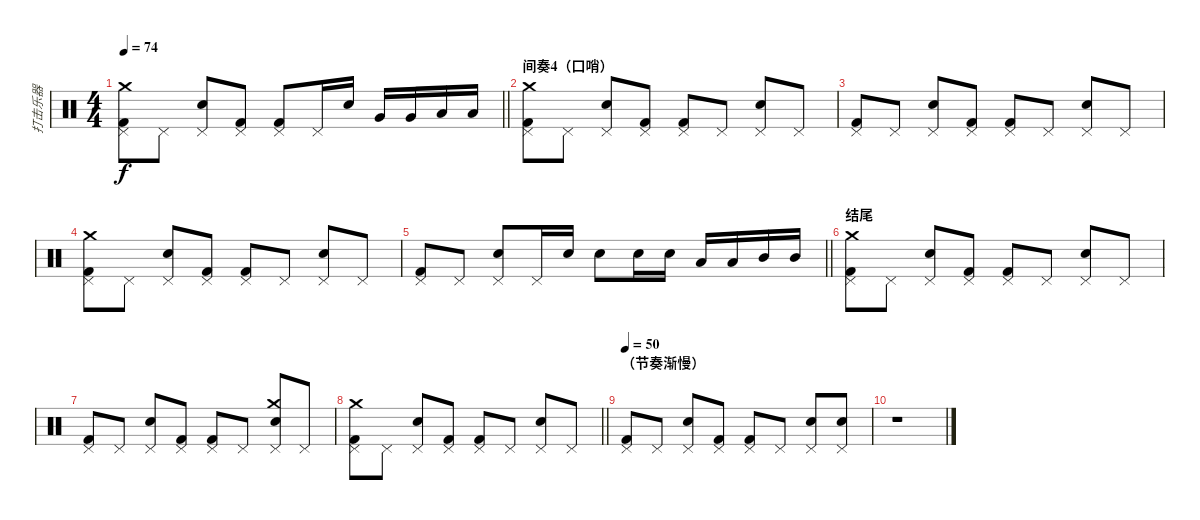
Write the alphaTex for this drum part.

\track ("打击乐器" "打击乐器") {instrument percussion}
\staff {score}
\articulation defaults
\ts (4 4)
\tempo 74
\clef neutral
\barLineRight lightlight
\ks c
("Pedal Hi-Hat (hit)" "Kick (hit) 2" "Crash medium (hit)").8{dy f} "Pedal Hi-Hat (hit)".8 ("Pedal Hi-Hat (hit)" "Electric Snare (hit)").8 ("Pedal Hi-Hat (hit)" "Kick (hit) 2").8 ("Pedal Hi-Hat (hit)" "Kick (hit) 2").8 "Pedal Hi-Hat (hit)".16 "Electric Snare (hit)".16 "Very Low Tom (hit)".16 "Very Low Tom (hit)".16 "Low Tom (hit)".16 "Low Tom (hit)".16 |
\section ("" "间奏4（口哨）")
("Pedal Hi-Hat (hit)" "Kick (hit) 2" "Crash medium (hit)").8 "Pedal Hi-Hat (hit)".8 ("Pedal Hi-Hat (hit)" "Electric Snare (hit)").8 ("Pedal Hi-Hat (hit)" "Kick (hit) 2").8 ("Pedal Hi-Hat (hit)" "Kick (hit) 2").8 "Pedal Hi-Hat (hit)".8 ("Pedal Hi-Hat (hit)" "Electric Snare (hit)").8 "Pedal Hi-Hat (hit)".8 |
("Pedal Hi-Hat (hit)" "Kick (hit) 2").8 "Pedal Hi-Hat (hit)".8 ("Pedal Hi-Hat (hit)" "Electric Snare (hit)").8 ("Pedal Hi-Hat (hit)" "Kick (hit) 2").8 ("Pedal Hi-Hat (hit)" "Kick (hit) 2").8 "Pedal Hi-Hat (hit)".8 ("Pedal Hi-Hat (hit)" "Electric Snare (hit)").8 "Pedal Hi-Hat (hit)".8 |
("Pedal Hi-Hat (hit)" "Kick (hit) 2" "Crash medium (hit)").8 "Pedal Hi-Hat (hit)".8 ("Pedal Hi-Hat (hit)" "Electric Snare (hit)").8 ("Pedal Hi-Hat (hit)" "Kick (hit) 2").8 ("Pedal Hi-Hat (hit)" "Kick (hit) 2").8 "Pedal Hi-Hat (hit)".8 ("Pedal Hi-Hat (hit)" "Electric Snare (hit)").8 "Pedal Hi-Hat (hit)".8 |
\barLineRight lightlight
("Pedal Hi-Hat (hit)" "Kick (hit) 2").8 "Pedal Hi-Hat (hit)".8 ("Pedal Hi-Hat (hit)" "Electric Snare (hit)").8 "Pedal Hi-Hat (hit)".16 "Electric Snare (hit)".16 "Electric Snare (hit)".8 "Electric Snare (hit)".16 "Electric Snare (hit)".16 "Low Tom (hit)".16 "Low Tom (hit)".16 "Mid Tom (hit)".16 "Mid Tom (hit)".16 |
\section ("" "结尾")
("Pedal Hi-Hat (hit)" "Kick (hit) 2" "Crash medium (hit)").8 "Pedal Hi-Hat (hit)".8 ("Pedal Hi-Hat (hit)" "Electric Snare (hit)").8 ("Pedal Hi-Hat (hit)" "Kick (hit) 2").8 ("Pedal Hi-Hat (hit)" "Kick (hit) 2").8 "Pedal Hi-Hat (hit)".8 ("Pedal Hi-Hat (hit)" "Electric Snare (hit)").8 "Pedal Hi-Hat (hit)".8 |
("Pedal Hi-Hat (hit)" "Kick (hit) 2").8 "Pedal Hi-Hat (hit)".8 ("Pedal Hi-Hat (hit)" "Electric Snare (hit)").8 ("Pedal Hi-Hat (hit)" "Kick (hit) 2").8 ("Pedal Hi-Hat (hit)" "Kick (hit) 2").8 "Pedal Hi-Hat (hit)".8 ("Pedal Hi-Hat (hit)" "Electric Snare (hit)" "Crash medium (hit)").8 "Pedal Hi-Hat (hit)".8 |
\barLineRight lightlight
("Pedal Hi-Hat (hit)" "Kick (hit) 2" "Crash medium (hit)").8 "Pedal Hi-Hat (hit)".8 ("Pedal Hi-Hat (hit)" "Electric Snare (hit)").8 ("Pedal Hi-Hat (hit)" "Kick (hit) 2").8 ("Pedal Hi-Hat (hit)" "Kick (hit) 2").8 "Pedal Hi-Hat (hit)".8 ("Pedal Hi-Hat (hit)" "Electric Snare (hit)").8 "Pedal Hi-Hat (hit)".8 |
\section ("" "（节奏渐慢）")
\tempo 50
("Pedal Hi-Hat (hit)" "Kick (hit) 2").8 "Pedal Hi-Hat (hit)".8 ("Pedal Hi-Hat (hit)" "Electric Snare (hit)").8 ("Pedal Hi-Hat (hit)" "Kick (hit) 2").8 ("Pedal Hi-Hat (hit)" "Kick (hit) 2").8 "Pedal Hi-Hat (hit)".8 ("Pedal Hi-Hat (hit)" "Electric Snare (hit)").8 ("Pedal Hi-Hat (hit)" "Electric Snare (hit)").8 |
r.1
